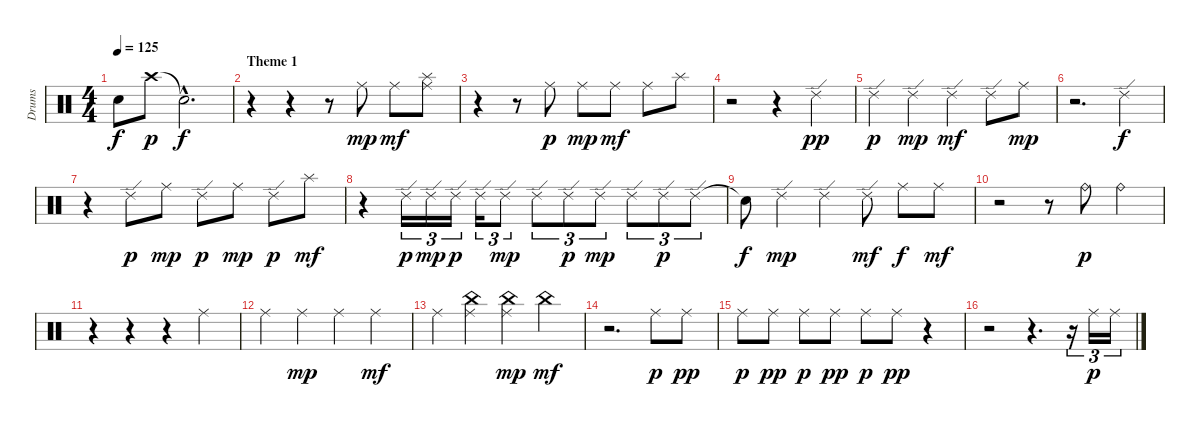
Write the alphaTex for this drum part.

\track ("Drums" "Drums") {instrument percussion}
\staff {score}
\articulation defaults
\ts (4 4)
\tempo 125
\clef neutral
\ks c "Snare (hit)"{t}.8{dy f} "Crash high (hit)".8{dy p} "Snare (hit)"{hac t}.2{d dy f}
|
\section ("" "Theme 1")
r.4 r.4 r.8 "Ride (middle)".8{dy mp} "Ride (middle)".8{dy mf} ("Ride (middle)" "Splash (hit)").8 |
r.4 r.8 "Ride (middle)".8{dy p} "Ride (middle)".8{dy mp} "Ride (middle)".8{dy mf} "Ride (middle)".8 "Splash (hit)".8 |
r.2 r.4 "Ride (edge) 2".4{dy pp} |
"Ride (edge) 2".4{dy p} "Ride (edge) 2".4{dy mp} "Ride (edge) 2".4{dy mf} "Ride (edge) 2".8 "Ride (middle)".8{dy mp} |
r.2{d} "Ride (edge) 2".4{dy f} |
r.4 "Ride (edge) 2".8{dy p} "Ride (middle)".8{dy mp} "Ride (edge) 2".8{dy p} "Ride (middle)".8{dy mp} "Ride (edge) 2".8{dy p} "Splash (hit)".8{dy mf} |
r.4 "Ride (edge) 2".16{tu (3 2) dy p} "Ride (edge) 2".16{tu (3 2) dy mp} "Ride (edge) 2".16{tu (3 2) dy p} "Ride (edge) 2".16{tu (3 2)} "Ride (edge) 2".8{tu (3 2) dy mp} "Ride (edge) 2".8{tu (3 2)} "Ride (edge) 2".8{tu (3 2) dy p} "Ride (edge) 2".8{tu (3 2) dy mp} "Ride (edge) 2".8{tu (3 2)} "Ride (edge) 2".8{tu (3 2) dy p} "Ride (edge) 2".8{tu (3 2)} |
"Snare (hit)"{t}.8{dy f} "Ride (edge) 2".4{dy mp} "Ride (edge) 2".4 "Ride (edge) 2".8{dy mf} "Ride (middle)".8{dy f} "Ride (middle)".8{dy mf} |
r.2 r.8 "Ride (bell)".8{dy p} "Ride (bell)".4 |
r.4 r.4 r.4 "Ride (middle)".4 |
"Ride (middle)".4 "Ride (middle)".4{dy mp} "Ride (middle)".4 "Ride (middle)".4{dy mf} |
"Ride (middle)".4 ("China (hit)" "Ride (middle)").4 ("China (hit)" "Ride (middle)").4{dy mp} "China (hit)".4{dy mf} |
r.2{d} "Ride (middle)".8{dy p} "Ride (middle)".8{dy pp} |
"Ride (middle)".8{dy p} "Ride (middle)".8{dy pp} "Ride (middle)".8{dy p} "Ride (middle)".8{dy pp} "Ride (middle)".8{dy p} "Ride (middle)".8{dy pp} r.4 |
r.2 r.4{d} r.16{tu (3 2)} "Ride (middle)".16{tu (3 2) dy p} "Ride (middle)".16{tu (3 2)}
